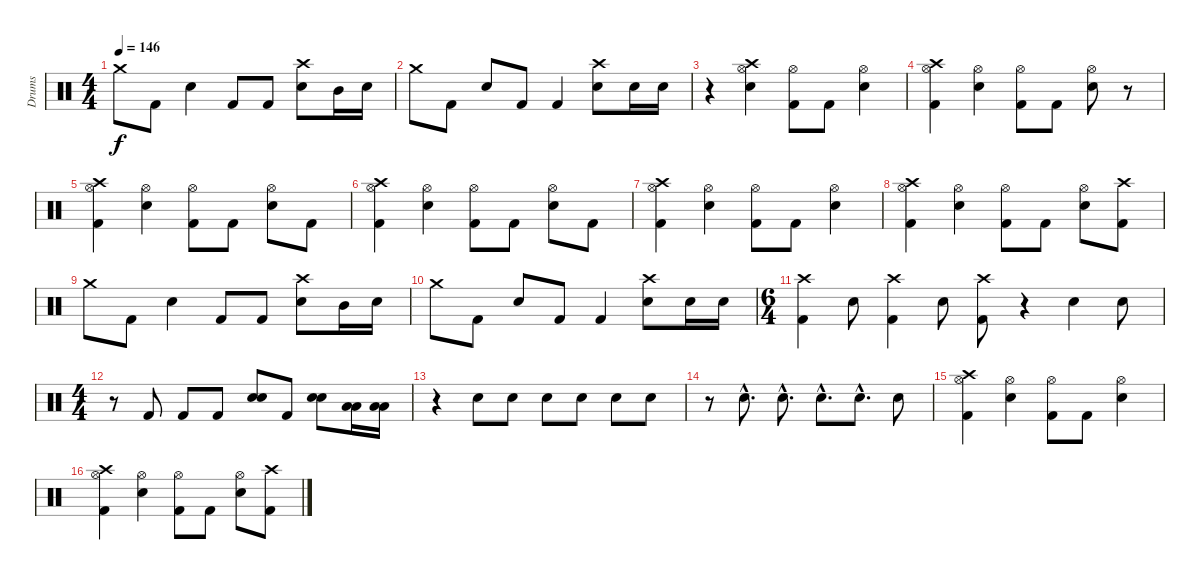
\track ("Drums" "Drums") {instrument percussion}
\staff {score}
\articulation defaults
\ts (4 4)
\tempo 146
\clef neutral
\ks c "Crash medium (hit)".8{dy f} "Kick (hit) 2".8 "Electric Snare (hit)".4 "Kick (hit) 2".8 "Kick (hit) 2".8
("Crash high (hit)" "Electric Snare (hit)").8 "Mid Tom (hit)".16 "Electric Snare (hit)".16 |
"Crash medium (hit)".8 "Kick (hit) 2".8 "Electric Snare (hit)".8 "Kick (hit) 2".8 "Kick (hit) 2".4 ("Crash high (hit)" "Electric Snare (hit)").8 "Electric Snare (hit)".16 "Electric Snare (hit)".16 |
r.4 ("Crash high (hit)" "Hi-Hat (open)" "Electric Snare (hit)").4 ("Hi-Hat (open)" "Kick (hit) 2").8 "Kick (hit) 2".8 ("Hi-Hat (open)" "Electric Snare (hit)").4 |
("Crash high (hit)" "Hi-Hat (open)" "Kick (hit) 2").4 ("Hi-Hat (open)" "Electric Snare (hit)").4 ("Hi-Hat (open)" "Kick (hit) 2").8 "Kick (hit) 2".8 ("Hi-Hat (open)" "Electric Snare (hit)").8 r.8 |
("Crash high (hit)" "Hi-Hat (open)" "Kick (hit) 2").4 ("Hi-Hat (open)" "Electric Snare (hit)").4 ("Hi-Hat (open)" "Kick (hit) 2").8 "Kick (hit) 2".8 ("Hi-Hat (open)" "Electric Snare (hit)").8 "Kick (hit) 2".8 |
("Crash high (hit)" "Hi-Hat (open)" "Kick (hit) 2").4 ("Hi-Hat (open)" "Electric Snare (hit)").4 ("Hi-Hat (open)" "Kick (hit) 2").8 "Kick (hit) 2".8 ("Hi-Hat (open)" "Electric Snare (hit)").8 "Kick (hit) 2".8 |
("Crash high (hit)" "Hi-Hat (open)" "Kick (hit) 2").4 ("Hi-Hat (open)" "Electric Snare (hit)").4 ("Hi-Hat (open)" "Kick (hit) 2").8 "Kick (hit) 2".8 ("Hi-Hat (open)" "Electric Snare (hit)").4 |
("Crash high (hit)" "Hi-Hat (open)" "Kick (hit) 2").4 ("Hi-Hat (open)" "Electric Snare (hit)").4 ("Hi-Hat (open)" "Kick (hit) 2").8 "Kick (hit) 2".8 ("Hi-Hat (open)" "Electric Snare (hit)").8 ("Crash high (hit)" "Kick (hit) 2").8 |
"Crash medium (hit)".8 "Kick (hit) 2".8 "Electric Snare (hit)".4 "Kick (hit) 2".8 "Kick (hit) 2".8 ("Crash high (hit)" "Electric Snare (hit)").8 "Mid Tom (hit)".16 "Electric Snare (hit)".16 |
"Crash medium (hit)".8 "Kick (hit) 2".8 "Electric Snare (hit)".8 "Kick (hit) 2".8 "Kick (hit) 2".4 ("Crash high (hit)" "Electric Snare (hit)").8 "Electric Snare (hit)".16 "Electric Snare (hit)".16 |
\ts (6 4)
("Crash high (hit)" "Kick (hit) 2").4 "Electric Snare (hit)".8 ("Crash high (hit)" "Kick (hit) 2").4 "Electric Snare (hit)".8 ("Crash high (hit)" "Kick (hit) 2").8 r.4 "Electric Snare (hit)".4 "Electric Snare (hit)".8 |
\ts (4 4)
r.8 "Kick (hit) 2".8 "Kick (hit) 2".8 "Kick (hit) 2".8 ("Electric Snare (hit)" "Electric Snare (hit)").8 "Kick (hit) 2".8 ("Electric Snare (hit)" "Electric Snare (hit)").8 ("Low Tom (hit)" "Low Tom (hit)").16 ("Low Tom (hit)" "Low Tom (hit)").16 |
r.4 "Hand Clap (hit)".8 "Hand Clap (hit)".8 "Hand Clap (hit)".8 "Hand Clap (hit)".8 "Hand Clap (hit)".8 "Hand Clap (hit)".8 |
r.8 "Electric Snare (hit)"{hac}.8{d} "Electric Snare (hit)"{hac}.8{d} "Electric Snare (hit)"{hac}.8{d} "Electric Snare (hit)"{hac}.8{d} "Electric Snare (hit)".8 |
("Crash high (hit)" "Hi-Hat (open)" "Kick (hit) 2").4 ("Hi-Hat (open)" "Electric Snare (hit)").4 ("Hi-Hat (open)" "Kick (hit) 2").8 "Kick (hit) 2".8 ("Hi-Hat (open)" "Electric Snare (hit)").4 |
("Crash high (hit)" "Hi-Hat (open)" "Kick (hit) 2").4 ("Hi-Hat (open)" "Electric Snare (hit)").4 ("Hi-Hat (open)" "Kick (hit) 2").8 "Kick (hit) 2".8 ("Hi-Hat (open)" "Electric Snare (hit)").8 ("Crash high (hit)" "Kick (hit) 2").8
